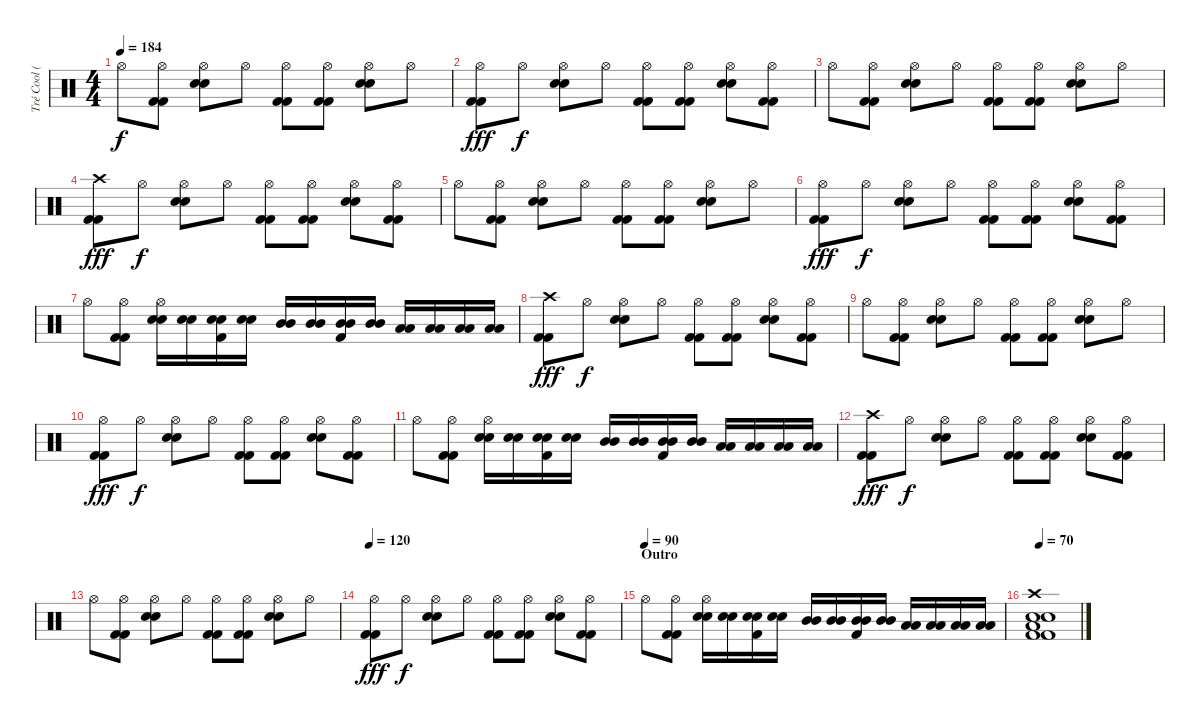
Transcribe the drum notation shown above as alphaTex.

\track ("Tré Cool (Drums)" "Tré Cool (") {instrument percussion}
\staff {score}
\articulation defaults
\ts (4 4)
\tempo 184
\clef neutral
\ks c "Hi-Hat (open)".8{dy f}
("Kick (hit) 2" "Kick (hit) 2" "Hi-Hat (open)").8 ("Electric Snare (hit)" "Electric Snare (hit)" "Hi-Hat (open)").8 "Hi-Hat (open)".8 ("Kick (hit) 2" "Kick (hit) 2" "Hi-Hat (open)").8 ("Kick (hit) 2" "Kick (hit) 2" "Hi-Hat (open)").8 ("Electric Snare (hit)" "Electric Snare (hit)" "Hi-Hat (open)").8 "Hi-Hat (open)".8 |
("Kick (hit) 2" "Kick (hit) 2" "Hi-Hat (open)").8{dy fff} "Hi-Hat (open)".8{dy f} ("Electric Snare (hit)" "Electric Snare (hit)" "Hi-Hat (open)").8 "Hi-Hat (open)".8 ("Kick (hit) 2" "Kick (hit) 2" "Hi-Hat (open)").8 ("Kick (hit) 2" "Kick (hit) 2" "Hi-Hat (open)").8 ("Electric Snare (hit)" "Electric Snare (hit)" "Hi-Hat (open)").8 ("Kick (hit) 2" "Kick (hit) 2" "Hi-Hat (open)").8 |
"Hi-Hat (open)".8 ("Kick (hit) 2" "Kick (hit) 2" "Hi-Hat (open)").8 ("Electric Snare (hit)" "Electric Snare (hit)" "Hi-Hat (open)").8 "Hi-Hat (open)".8 ("Kick (hit) 2" "Kick (hit) 2" "Hi-Hat (open)").8 ("Kick (hit) 2" "Kick (hit) 2" "Hi-Hat (open)").8 ("Electric Snare (hit)" "Electric Snare (hit)" "Hi-Hat (open)").8 "Hi-Hat (open)".8 |
("Kick (hit) 2" "Kick (hit) 2" "Crash high (hit)").8{dy fff} "Hi-Hat (open)".8{dy f} ("Electric Snare (hit)" "Electric Snare (hit)" "Hi-Hat (open)").8 "Hi-Hat (open)".8 ("Kick (hit) 2" "Kick (hit) 2" "Hi-Hat (open)").8 ("Kick (hit) 2" "Kick (hit) 2" "Hi-Hat (open)").8 ("Electric Snare (hit)" "Electric Snare (hit)" "Hi-Hat (open)").8 ("Kick (hit) 2" "Kick (hit) 2" "Hi-Hat (open)").8 |
"Hi-Hat (open)".8 ("Kick (hit) 2" "Kick (hit) 2" "Hi-Hat (open)").8 ("Electric Snare (hit)" "Electric Snare (hit)" "Hi-Hat (open)").8 "Hi-Hat (open)".8 ("Kick (hit) 2" "Kick (hit) 2" "Hi-Hat (open)").8 ("Kick (hit) 2" "Kick (hit) 2" "Hi-Hat (open)").8 ("Electric Snare (hit)" "Electric Snare (hit)" "Hi-Hat (open)").8 "Hi-Hat (open)".8 |
("Kick (hit) 2" "Kick (hit) 2" "Hi-Hat (open)").8{dy fff} "Hi-Hat (open)".8{dy f} ("Electric Snare (hit)" "Electric Snare (hit)" "Hi-Hat (open)").8 "Hi-Hat (open)".8 ("Kick (hit) 2" "Kick (hit) 2" "Hi-Hat (open)").8 ("Kick (hit) 2" "Kick (hit) 2" "Hi-Hat (open)").8 ("Electric Snare (hit)" "Electric Snare (hit)" "Hi-Hat (open)").8 ("Kick (hit) 2" "Kick (hit) 2" "Hi-Hat (open)").8 |
"Hi-Hat (open)".8 ("Kick (hit) 2" "Kick (hit) 2" "Hi-Hat (open)").8 ("Electric Snare (hit)" "Electric Snare (hit)" "Hi-Hat (open)").16 ("Electric Snare (hit)" "Electric Snare (hit)").16 ("Electric Snare (hit)" "Electric Snare (hit)" "Kick (hit) 2").16 ("Electric Snare (hit)" "Electric Snare (hit)").16 ("Mid Tom (hit)" "Mid Tom (hit)").16 ("Mid Tom (hit)" "Mid Tom (hit)").16 ("Mid Tom (hit)" "Mid Tom (hit)" "Kick (hit) 2").16 ("Mid Tom (hit)" "Mid Tom (hit)").16 ("Low Tom (hit)" "Low Tom (hit)").16 ("Low Tom (hit)" "Low Tom (hit)").16 ("Low Tom (hit)" "Low Tom (hit)").16 ("Low Tom (hit)" "Low Tom (hit)").16 |
("Kick (hit) 2" "Kick (hit) 2" "Crash high (hit)").8{dy fff} "Hi-Hat (open)".8{dy f} ("Electric Snare (hit)" "Electric Snare (hit)" "Hi-Hat (open)").8 "Hi-Hat (open)".8 ("Kick (hit) 2" "Kick (hit) 2" "Hi-Hat (open)").8 ("Kick (hit) 2" "Kick (hit) 2" "Hi-Hat (open)").8 ("Electric Snare (hit)" "Electric Snare (hit)" "Hi-Hat (open)").8 ("Kick (hit) 2" "Kick (hit) 2" "Hi-Hat (open)").8 |
"Hi-Hat (open)".8 ("Kick (hit) 2" "Kick (hit) 2" "Hi-Hat (open)").8 ("Electric Snare (hit)" "Electric Snare (hit)" "Hi-Hat (open)").8 "Hi-Hat (open)".8 ("Kick (hit) 2" "Kick (hit) 2" "Hi-Hat (open)").8 ("Kick (hit) 2" "Kick (hit) 2" "Hi-Hat (open)").8 ("Electric Snare (hit)" "Electric Snare (hit)" "Hi-Hat (open)").8 "Hi-Hat (open)".8 |
("Kick (hit) 2" "Kick (hit) 2" "Hi-Hat (open)").8{dy fff} "Hi-Hat (open)".8{dy f} ("Electric Snare (hit)" "Electric Snare (hit)" "Hi-Hat (open)").8 "Hi-Hat (open)".8 ("Kick (hit) 2" "Kick (hit) 2" "Hi-Hat (open)").8 ("Kick (hit) 2" "Kick (hit) 2" "Hi-Hat (open)").8 ("Electric Snare (hit)" "Electric Snare (hit)" "Hi-Hat (open)").8 ("Kick (hit) 2" "Kick (hit) 2" "Hi-Hat (open)").8 |
"Hi-Hat (open)".8 ("Kick (hit) 2" "Kick (hit) 2" "Hi-Hat (open)").8 ("Electric Snare (hit)" "Electric Snare (hit)" "Hi-Hat (open)").16 ("Electric Snare (hit)" "Electric Snare (hit)").16 ("Electric Snare (hit)" "Electric Snare (hit)" "Kick (hit) 2").16 ("Electric Snare (hit)" "Electric Snare (hit)").16 ("Mid Tom (hit)" "Mid Tom (hit)").16 ("Mid Tom (hit)" "Mid Tom (hit)").16 ("Mid Tom (hit)" "Mid Tom (hit)" "Kick (hit) 2").16 ("Mid Tom (hit)" "Mid Tom (hit)").16 ("Low Tom (hit)" "Low Tom (hit)").16 ("Low Tom (hit)" "Low Tom (hit)").16 ("Low Tom (hit)" "Low Tom (hit)").16 ("Low Tom (hit)" "Low Tom (hit)").16 |
("Kick (hit) 2" "Kick (hit) 2" "Crash high (hit)").8{dy fff} "Hi-Hat (open)".8{dy f} ("Electric Snare (hit)" "Electric Snare (hit)" "Hi-Hat (open)").8 "Hi-Hat (open)".8 ("Kick (hit) 2" "Kick (hit) 2" "Hi-Hat (open)").8 ("Kick (hit) 2" "Kick (hit) 2" "Hi-Hat (open)").8 ("Electric Snare (hit)" "Electric Snare (hit)" "Hi-Hat (open)").8 ("Kick (hit) 2" "Kick (hit) 2" "Hi-Hat (open)").8 |
"Hi-Hat (open)".8 ("Kick (hit) 2" "Kick (hit) 2" "Hi-Hat (open)").8 ("Electric Snare (hit)" "Electric Snare (hit)" "Hi-Hat (open)").8 "Hi-Hat (open)".8 ("Kick (hit) 2" "Kick (hit) 2" "Hi-Hat (open)").8 ("Kick (hit) 2" "Kick (hit) 2" "Hi-Hat (open)").8 ("Electric Snare (hit)" "Electric Snare (hit)" "Hi-Hat (open)").8 "Hi-Hat (open)".8 |
\tempo 120
("Kick (hit) 2" "Kick (hit) 2" "Hi-Hat (open)").8{dy fff} "Hi-Hat (open)".8{dy f} ("Electric Snare (hit)" "Electric Snare (hit)" "Hi-Hat (open)").8 "Hi-Hat (open)".8 ("Kick (hit) 2" "Kick (hit) 2" "Hi-Hat (open)").8 ("Kick (hit) 2" "Kick (hit) 2" "Hi-Hat (open)").8 ("Electric Snare (hit)" "Electric Snare (hit)" "Hi-Hat (open)").8 ("Kick (hit) 2" "Kick (hit) 2" "Hi-Hat (open)").8 |
\section ("" "Outro")
\tempo (90)
"Hi-Hat (open)".8 ("Kick (hit) 2" "Kick (hit) 2" "Hi-Hat (open)").8 ("Electric Snare (hit)" "Electric Snare (hit)" "Hi-Hat (open)").16 ("Electric Snare (hit)" "Electric Snare (hit)").16 ("Electric Snare (hit)" "Electric Snare (hit)" "Kick (hit) 2").16 ("Electric Snare (hit)" "Electric Snare (hit)").16 ("Mid Tom (hit)" "Mid Tom (hit)").16 ("Mid Tom (hit)" "Mid Tom (hit)").16 ("Mid Tom (hit)" "Mid Tom (hit)" "Kick (hit) 2").16 ("Mid Tom (hit)" "Mid Tom (hit)").16 ("Low Tom (hit)" "Low Tom (hit)").16 ("Low Tom (hit)" "Low Tom (hit)").16 ("Low Tom (hit)" "Low Tom (hit)").16 ("Low Tom (hit)" "Low Tom (hit)").16 |
\tempo 70
("Kick (hit) 2" "Kick (hit) 2" "Electric Snare (hit)" "Electric Snare (hit)" "Low Tom (hit)" "Crash high (hit)").1
